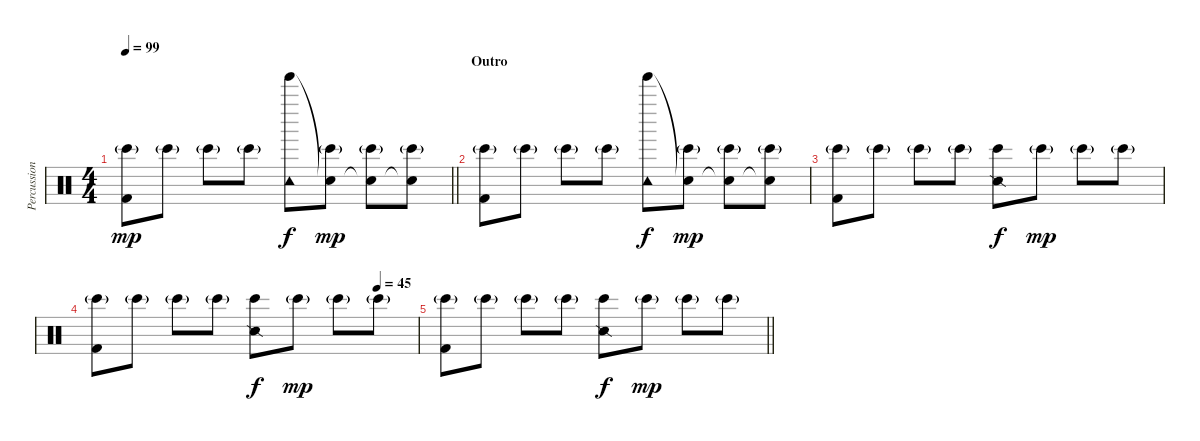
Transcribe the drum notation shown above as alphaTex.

\track ("Percussion" "Percussion") {instrument percussion}
\staff {score}
\articulation defaults
\ts (4 4)
\tempo 99
\clef neutral
\barLineRight lightlight
\ks c
("Bongo High (hit)"{g} "Kick (hit) 2").8{dy mp} "Bongo High (hit)"{g}.8 "Bongo High (hit)"{g}.8 "Bongo High (hit)"{g}.8 ("Tinkle Bell (hit)" "Tambourine (hit)").8{dy f} ("Snare (hit)"{t} "Bongo High (hit)"{g}).8{dy mp} ("Snare (hit)"{t} "Bongo High (hit)"{g}).8 ("Snare (hit)"{t} "Bongo High (hit)"{g}).8 |
\section ("" "Outro")
("Bongo High (hit)"{g} "Kick (hit) 2").8 "Bongo High (hit)"{g}.8 "Bongo High (hit)"{g}.8 "Bongo High (hit)"{g}.8 ("Tinkle Bell (hit)" "Tambourine (hit)").8{dy f} ("Snare (hit)"{t} "Bongo High (hit)"{g}).8{dy mp} ("Snare (hit)"{t} "Bongo High (hit)"{g}).8 ("Snare (hit)"{t} "Bongo High (hit)"{g}).8 |
("Bongo High (hit)"{g} "Kick (hit) 2").8 "Bongo High (hit)"{g}.8 "Bongo High (hit)"{g}.8 "Bongo High (hit)"{g}.8 ("Bongo High (hit)" "Snare (side stick) 2").8{dy f} "Bongo High (hit)"{g}.8{dy mp} "Bongo High (hit)"{g}.8 "Bongo High (hit)"{g}.8 |
\tempo (45 0.875)
("Bongo High (hit)"{g} "Kick (hit) 2").8 "Bongo High (hit)"{g}.8 "Bongo High (hit)"{g}.8 "Bongo High (hit)"{g}.8 ("Bongo High (hit)" "Snare (side stick) 2").8{dy f} "Bongo High (hit)"{g}.8{dy mp} "Bongo High (hit)"{g}.8 "Bongo High (hit)"{g}.8 |
\barLineRight lightlight
("Bongo High (hit)"{g} "Kick (hit) 2").8 "Bongo High (hit)"{g}.8 "Bongo High (hit)"{g}.8 "Bongo High (hit)"{g}.8 ("Bongo High (hit)" "Snare (side stick) 2").8{dy f} "Bongo High (hit)"{g}.8{dy mp} "Bongo High (hit)"{g}.8 "Bongo High (hit)"{g}.8
